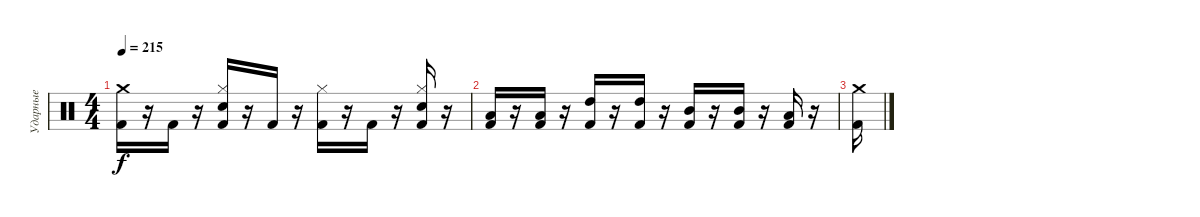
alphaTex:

\track ("Ударные" "Ударные") {instrument percussion}
\staff {score}
\articulation defaults
\ts (4 4)
\tempo 215
\clef neutral
\ks c
("Crash medium (hit)" "Kick (hit) 2").16{dy f} r.16 "Kick (hit) 2".16 r.16 ("Hi-Hat (closed)" "Snare (hit) 2" "Kick (hit) 2").16 r.16 "Kick (hit) 2".16 r.16 ("Hi-Hat (closed)" "Kick (hit) 2").16 r.16 "Kick (hit) 2".16 r.16 ("Hi-Hat (closed)" "Snare (hit) 2" "Kick (hit) 2").16 r.16 |
("Low Tom (hit)" "Kick (hit) 2").16 r.16 ("Low Tom (hit)" "Kick (hit) 2").16 r.16 ("High Tom (hit)" "Kick (hit) 2").16 r.16 ("High Tom (hit)" "Kick (hit) 2").16 r.16 ("Mid Tom (hit)" "Kick (hit) 2").16 r.16 ("Mid Tom (hit)" "Kick (hit) 2").16 r.16 ("Low Tom (hit)" "Kick (hit) 2").16 r.16 |
("Crash medium (hit)" "Kick (hit) 2").16
